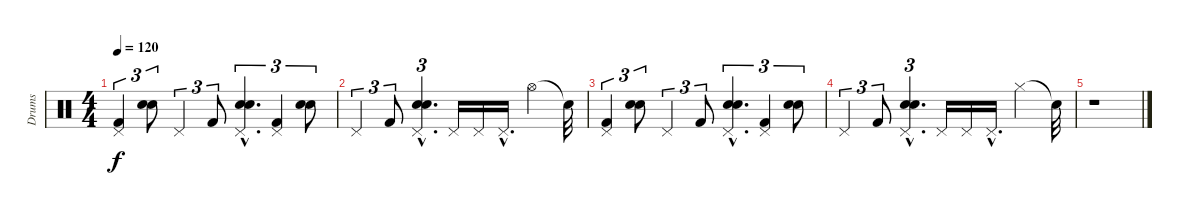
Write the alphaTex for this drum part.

\track ("Drums" "Drums") {instrument percussion}
\staff {score}
\articulation defaults
\ts (4 4)
\tempo 120
\clef neutral
\ks c
("Pedal Hi-Hat (hit)" "Kick (hit) 2").4{tu (3 2) dy f} ("Electric Snare (hit)" "Snare (hit) 2").8{tu (3 2)} "Pedal Hi-Hat (hit)".4{tu (3 2)} "Kick (hit) 2".8{tu (3 2)} ("Pedal Hi-Hat (hit)"{hac} "Electric Snare (hit)"{hac} "Snare (hit) 2"{hac}).4{d tu (3 2)} ("Pedal Hi-Hat (hit)" "Kick (hit) 2").4{tu (3 2)} ("Electric Snare (hit)" "Snare (hit) 2").8{tu (3 2)} |
"Pedal Hi-Hat (hit)".4{tu (3 2)} "Kick (hit) 2".8{tu (3 2)} ("Pedal Hi-Hat (hit)"{hac} "Electric Snare (hit)"{hac} "Snare (hit) 2"{hac}).4{d tu (3 2)} "Pedal Hi-Hat (hit)".16 "Pedal Hi-Hat (hit)".16 "Pedal Hi-Hat (hit)"{hac}.16{d} "Hi-Hat (open)".4 "Snare (hit)"{t}.32 |
("Pedal Hi-Hat (hit)" "Kick (hit) 2").4{tu (3 2)} ("Electric Snare (hit)" "Snare (hit) 2").8{tu (3 2)} "Pedal Hi-Hat (hit)".4{tu (3 2)} "Kick (hit) 2".8{tu (3 2)} ("Pedal Hi-Hat (hit)"{hac} "Electric Snare (hit)"{hac} "Snare (hit) 2"{hac}).4{d tu (3 2)} ("Pedal Hi-Hat (hit)" "Kick (hit) 2").4{tu (3 2)} ("Electric Snare (hit)" "Snare (hit) 2").8{tu (3 2)} |
"Pedal Hi-Hat (hit)".4{tu (3 2)} "Kick (hit) 2".8{tu (3 2)} ("Pedal Hi-Hat (hit)"{hac} "Electric Snare (hit)"{hac} "Snare (hit) 2"{hac}).4{d tu (3 2)} "Pedal Hi-Hat (hit)".16 "Pedal Hi-Hat (hit)".16 "Pedal Hi-Hat (hit)"{hac}.16{d} "Hi-Hat (closed)".4 "Snare (hit)"{t}.32 |
r.1
